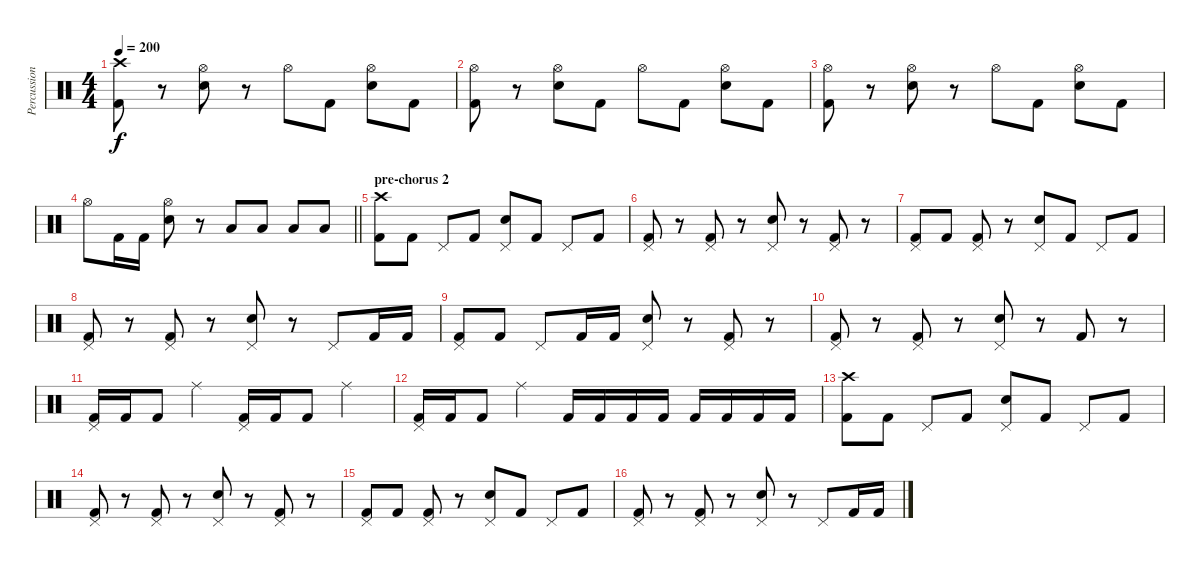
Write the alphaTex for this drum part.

\track ("Percussion" "Percussion") {instrument percussion}
\staff {score}
\articulation defaults
\ts (4 4)
\tempo 200
\clef neutral
\ks c
("Crash high (hit)" "Kick (hit) 2").8{dy f} r.8 ("Hi-Hat (open)" "Snare (hit) 2").8 r.8 "Hi-Hat (open)".8 "Kick (hit) 2".8 ("Hi-Hat (open)" "Snare (hit) 2").8 "Kick (hit) 2".8 |
("Hi-Hat (open)" "Kick (hit) 2").8 r.8 ("Hi-Hat (open)" "Snare (hit) 2").8 "Kick (hit) 2".8 "Hi-Hat (open)".8 "Kick (hit) 2".8 ("Hi-Hat (open)" "Snare (hit) 2").8 "Kick (hit) 2".8 |
("Hi-Hat (open)" "Kick (hit) 2").8 r.8 ("Hi-Hat (open)" "Snare (hit) 2").8 r.8 "Hi-Hat (open)".8 "Kick (hit) 2".8 ("Hi-Hat (open)" "Snare (hit) 2").8 "Kick (hit) 2".8 |
\barLineRight lightlight "Hi-Hat (open)".8 "Kick (hit) 2".16 "Kick (hit) 2".16
("Hi-Hat (open)" "Snare (hit) 2").8 r.8 "Low Floor Tom (hit)".8 "Low Floor Tom (hit)".8 "Low Floor Tom (hit)".8 "Low Floor Tom (hit)".8 |
\section ("" "pre-chorus 2")
("Crash high (hit)" "Kick (hit) 2").8 "Kick (hit) 2".8 "Pedal Hi-Hat (hit)".8 "Kick (hit) 2".8 ("Pedal Hi-Hat (hit)" "Snare (hit) 2").8 "Kick (hit) 2".8 "Pedal Hi-Hat (hit)".8 "Kick (hit) 2".8 |
("Pedal Hi-Hat (hit)" "Kick (hit) 2").8 r.8 ("Pedal Hi-Hat (hit)" "Kick (hit) 2").8 r.8 ("Pedal Hi-Hat (hit)" "Snare (hit) 2").8 r.8 ("Pedal Hi-Hat (hit)" "Kick (hit) 2").8 r.8 |
("Pedal Hi-Hat (hit)" "Kick (hit) 2").8 "Kick (hit) 2".8 ("Pedal Hi-Hat (hit)" "Kick (hit) 2").8 r.8 ("Pedal Hi-Hat (hit)" "Snare (hit) 2").8 "Kick (hit) 2".8 "Pedal Hi-Hat (hit)".8 "Kick (hit) 2".8 |
("Pedal Hi-Hat (hit)" "Kick (hit) 2").8 r.8 ("Pedal Hi-Hat (hit)" "Kick (hit) 2").8 r.8 ("Pedal Hi-Hat (hit)" "Snare (hit) 2").8 r.8 "Pedal Hi-Hat (hit)".8 "Kick (hit) 2".16 "Kick (hit) 2".16 |
("Pedal Hi-Hat (hit)" "Kick (hit) 2").8 "Kick (hit) 2".8 "Pedal Hi-Hat (hit)".8 "Kick (hit) 2".16 "Kick (hit) 2".16 ("Pedal Hi-Hat (hit)" "Snare (hit) 2").8 r.8 ("Pedal Hi-Hat (hit)" "Kick (hit) 2").8 r.8 |
("Pedal Hi-Hat (hit)" "Kick (hit) 2").8 r.8 ("Pedal Hi-Hat (hit)" "Kick (hit) 2").8 r.8 ("Pedal Hi-Hat (hit)" "Snare (hit) 2").8 r.8 "Kick (hit) 2".8 r.8 |
("Pedal Hi-Hat (hit)" "Kick (hit) 2").16 "Kick (hit) 2".16 "Kick (hit) 2".8 "Ride (middle)".4 ("Pedal Hi-Hat (hit)" "Kick (hit) 2").16 "Kick (hit) 2".16 "Kick (hit) 2".8 "Ride (middle)".4 |
("Pedal Hi-Hat (hit)" "Kick (hit) 2").16 "Kick (hit) 2".16 "Kick (hit) 2".8 "Ride (middle)".4 "Kick (hit) 2".16 "Kick (hit) 2".16 "Kick (hit) 2".16 "Kick (hit) 2".16 "Kick (hit) 2".16 "Kick (hit) 2".16 "Kick (hit) 2".16 "Kick (hit) 2".16 |
("Crash high (hit)" "Kick (hit) 2").8 "Kick (hit) 2".8 "Pedal Hi-Hat (hit)".8 "Kick (hit) 2".8 ("Pedal Hi-Hat (hit)" "Snare (hit) 2").8 "Kick (hit) 2".8 "Pedal Hi-Hat (hit)".8 "Kick (hit) 2".8 |
("Pedal Hi-Hat (hit)" "Kick (hit) 2").8 r.8 ("Pedal Hi-Hat (hit)" "Kick (hit) 2").8 r.8 ("Pedal Hi-Hat (hit)" "Snare (hit) 2").8 r.8 ("Pedal Hi-Hat (hit)" "Kick (hit) 2").8 r.8 |
("Pedal Hi-Hat (hit)" "Kick (hit) 2").8 "Kick (hit) 2".8 ("Pedal Hi-Hat (hit)" "Kick (hit) 2").8 r.8 ("Pedal Hi-Hat (hit)" "Snare (hit) 2").8 "Kick (hit) 2".8 "Pedal Hi-Hat (hit)".8 "Kick (hit) 2".8 |
("Pedal Hi-Hat (hit)" "Kick (hit) 2").8 r.8 ("Pedal Hi-Hat (hit)" "Kick (hit) 2").8 r.8 ("Pedal Hi-Hat (hit)" "Snare (hit) 2").8 r.8 "Pedal Hi-Hat (hit)".8 "Kick (hit) 2".16 "Kick (hit) 2".16
